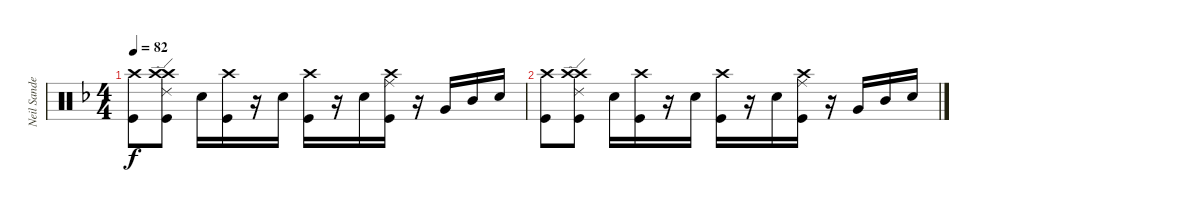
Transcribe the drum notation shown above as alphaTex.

\track ("Neil Sanderson" "Neil Sande") {instrument percussion}
\staff {score}
\articulation defaults
\ts (4 4)
\tempo 82
\clef neutral
\ks f
("Crash high (hit)" "Kick (hit)").8{dy f} ("Ride (edge) 2" "Kick (hit)" "Crash high (hit)" "Crash high (hit)").8 "Snare (hit) 2".16 ("Crash high (hit)" "Kick (hit)").16 r.16 "Snare (hit) 2".16 ("Crash high (hit)" "Kick (hit)").16 r.16 "Snare (hit) 2".16 ("Ride (middle)" "Kick (hit)" "Crash high (hit)").16 r.16 "Very Low Tom (hit)".16 "Mid Tom (hit)".16 "Snare (hit) 2".16 |
("Crash high (hit)" "Kick (hit)").8 ("Ride (edge) 2" "Kick (hit)" "Crash high (hit)" "Crash high (hit)").8 "Snare (hit) 2".16 ("Crash high (hit)" "Kick (hit)").16 r.16 "Snare (hit) 2".16 ("Crash high (hit)" "Kick (hit)").16 r.16 "Snare (hit) 2".16 ("Ride (middle)" "Kick (hit)" "Crash high (hit)").16 r.16 "Very Low Tom (hit)".16 "Mid Tom (hit)".16 "Snare (hit) 2".16
